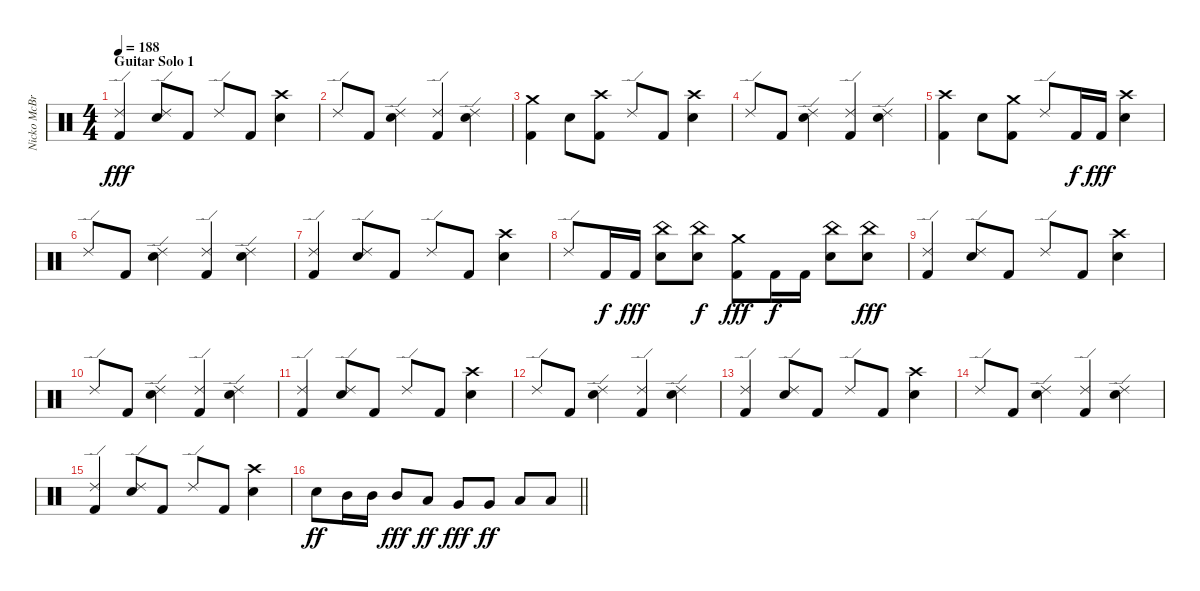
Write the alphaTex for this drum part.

\track ("Nicko McBrain" "Nicko McBr") {instrument percussion}
\staff {score}
\articulation defaults
\ts (4 4)
\section ("" "Guitar Solo 1")
\tempo 188
\clef neutral
\ks c
("Ride (edge) 2" "Kick (hit) 2").4{dy fff} ("Ride (edge) 2" "Electric Snare (hit)").8 "Kick (hit) 2".8 "Ride (edge) 2".8 "Kick (hit) 2".8 ("Crash high (hit)" "Electric Snare (hit)").4 |
"Ride (edge) 2".8 "Kick (hit) 2".8 ("Ride (edge) 2" "Electric Snare (hit)").4 ("Ride (edge) 2" "Kick (hit) 2").4 ("Ride (edge) 2" "Electric Snare (hit)").4 |
("Crash medium (hit)" "Kick (hit) 2").4 "Electric Snare (hit)".8 ("Crash high (hit)" "Kick (hit) 2").8 "Ride (edge) 2".8 "Kick (hit) 2".8 ("Crash high (hit)" "Electric Snare (hit)").4 |
"Ride (edge) 2".8 "Kick (hit) 2".8 ("Ride (edge) 2" "Electric Snare (hit)").4 ("Ride (edge) 2" "Kick (hit) 2").4 ("Ride (edge) 2" "Electric Snare (hit)").4 |
("Crash high (hit)" "Kick (hit) 2").4 "Electric Snare (hit)".8 ("Crash medium (hit)" "Kick (hit) 2").8 "Ride (edge) 2".8 "Kick (hit) 2".16{dy f} "Kick (hit) 2".16{dy fff} ("Crash high (hit)" "Electric Snare (hit)").4 |
"Ride (edge) 2".8 "Kick (hit) 2".8 ("Ride (edge) 2" "Electric Snare (hit)").4 ("Ride (edge) 2" "Kick (hit) 2").4 ("Ride (edge) 2" "Electric Snare (hit)").4 |
("Ride (edge) 2" "Kick (hit) 2").4 ("Ride (edge) 2" "Electric Snare (hit)").8 "Kick (hit) 2".8 "Ride (edge) 2".8 "Kick (hit) 2".8 ("Crash high (hit)" "Electric Snare (hit)").4 |
"Ride (edge) 2".8 "Kick (hit) 2".16{dy f} "Kick (hit) 2".16{dy fff} ("China (hit)" "Electric Snare (hit)").8 ("China (hit)" "Electric Snare (hit)").8{dy f} ("Crash medium (hit)" "Kick (hit) 2").8{dy fff} "Kick (hit) 2".16{dy f} "Kick (hit) 2".16 ("China (hit)" "Electric Snare (hit)").8 ("China (hit)" "Electric Snare (hit)").8{dy fff} |
("Ride (edge) 2" "Kick (hit) 2").4 ("Ride (edge) 2" "Electric Snare (hit)").8 "Kick (hit) 2".8 "Ride (edge) 2".8 "Kick (hit) 2".8 ("Crash high (hit)" "Electric Snare (hit)").4 |
"Ride (edge) 2".8 "Kick (hit) 2".8 ("Ride (edge) 2" "Electric Snare (hit)").4 ("Ride (edge) 2" "Kick (hit) 2").4 ("Ride (edge) 2" "Electric Snare (hit)").4 |
("Ride (edge) 2" "Kick (hit) 2").4 ("Ride (edge) 2" "Electric Snare (hit)").8 "Kick (hit) 2".8 "Ride (edge) 2".8 "Kick (hit) 2".8 ("Crash high (hit)" "Electric Snare (hit)").4 |
"Ride (edge) 2".8 "Kick (hit) 2".8 ("Ride (edge) 2" "Electric Snare (hit)").4 ("Ride (edge) 2" "Kick (hit) 2").4 ("Ride (edge) 2" "Electric Snare (hit)").4 |
("Ride (edge) 2" "Kick (hit) 2").4 ("Ride (edge) 2" "Electric Snare (hit)").8 "Kick (hit) 2".8 "Ride (edge) 2".8 "Kick (hit) 2".8 ("Crash high (hit)" "Electric Snare (hit)").4 |
"Ride (edge) 2".8 "Kick (hit) 2".8 ("Ride (edge) 2" "Electric Snare (hit)").4 ("Ride (edge) 2" "Kick (hit) 2").4 ("Ride (edge) 2" "Electric Snare (hit)").4 |
("Ride (edge) 2" "Kick (hit) 2").4 ("Ride (edge) 2" "Electric Snare (hit)").8 "Kick (hit) 2".8 "Ride (edge) 2".8 "Kick (hit) 2".8 ("Crash high (hit)" "Electric Snare (hit)").4 |
\barLineRight lightlight "Electric Snare (hit)".8{dy ff} "Mid Tom (hit)".16 "Mid Tom (hit)".16 "Mid Tom (hit)".8{dy fff} "Low Tom (hit)".8{dy ff} "Very Low Tom (hit)".8{dy fff} "Very Low Tom (hit)".8{dy ff} "Low Floor Tom (hit)".8 "Low Floor Tom (hit)".8
